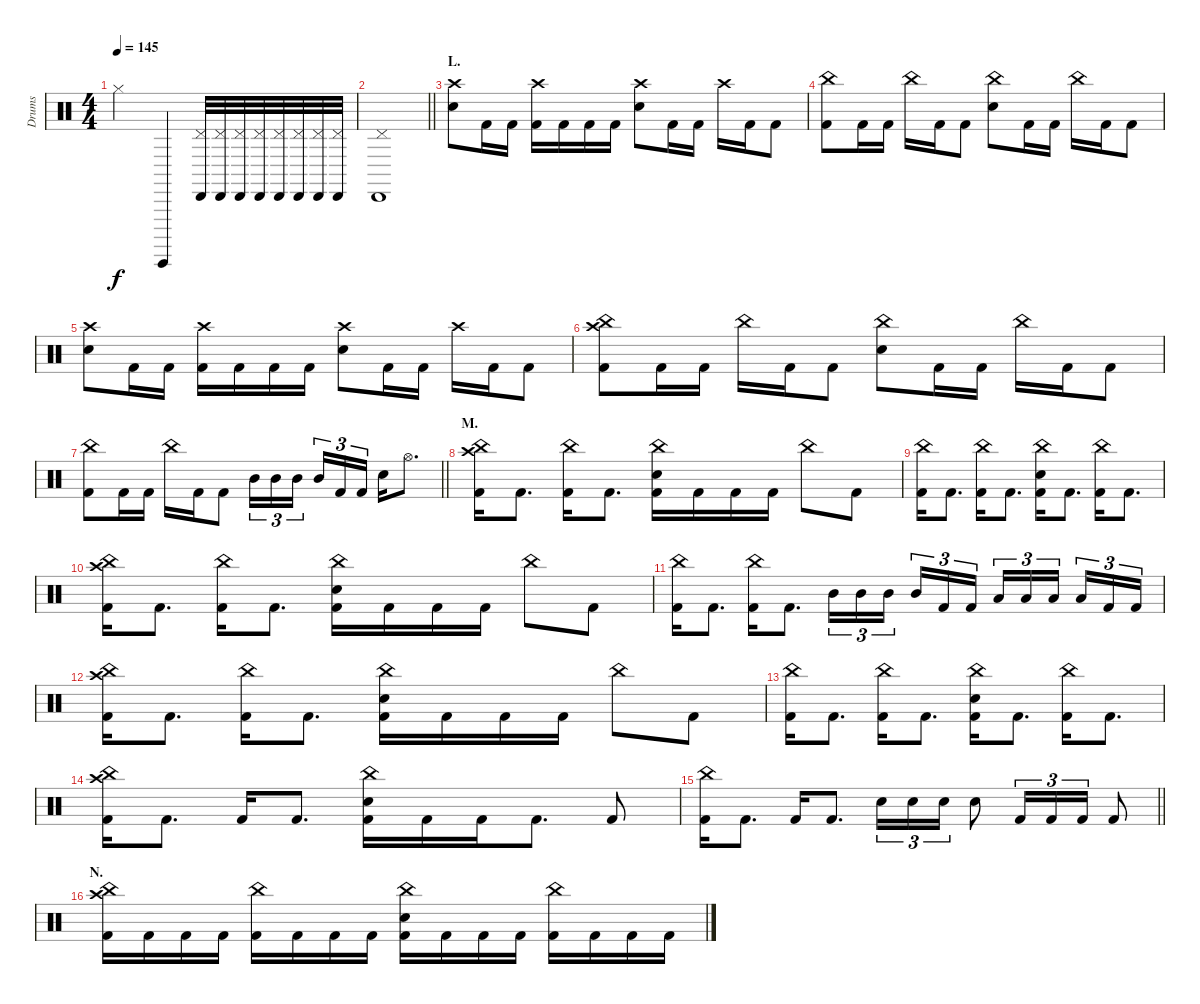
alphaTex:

\track ("Drums" "Drums") {instrument percussion}
\staff {score}
\articulation defaults
\ts (4 4)
\tempo 145
\clef neutral
\ks c "Hi-Hat (closed)".2{dy f} "Guiro (hit)".4
("Cabasa (hit)" "Pedal Hi-Hat (hit)").32 ("Cabasa (hit)" "Pedal Hi-Hat (hit)").32 ("Cabasa (hit)" "Pedal Hi-Hat (hit)").32 ("Cabasa (hit)" "Pedal Hi-Hat (hit)").32 ("Cabasa (hit)" "Pedal Hi-Hat (hit)").32 ("Cabasa (hit)" "Pedal Hi-Hat (hit)").32 ("Cabasa (hit)" "Pedal Hi-Hat (hit)").32 ("Cabasa (hit)" "Pedal Hi-Hat (hit)").32 |
\barLineRight lightlight
("Cabasa (hit)" "Pedal Hi-Hat (hit)").1 |
\section ("" "L.")
("Crash high (hit)" "Electric Snare (hit)").8 "Kick (hit) 2".16 "Kick (hit) 2".16 ("Crash high (hit)" "Kick (hit) 2").16 "Kick (hit) 2".16 "Kick (hit) 2".16 "Kick (hit) 2".16 ("Crash high (hit)" "Electric Snare (hit)").8 "Kick (hit) 2".16 "Kick (hit) 2".16 "Crash high (hit)".16 "Kick (hit) 2".16 "Kick (hit) 2".8 |
("China (hit)" "Kick (hit) 2").8 "Kick (hit) 2".16 "Kick (hit) 2".16 "China (hit)".16 "Kick (hit) 2".16 "Kick (hit) 2".8 ("China (hit)" "Electric Snare (hit)").8 "Kick (hit) 2".16 "Kick (hit) 2".16 "China (hit)".16 "Kick (hit) 2".16 "Kick (hit) 2".8 |
("Crash high (hit)" "Electric Snare (hit)").8 "Kick (hit) 2".16 "Kick (hit) 2".16 ("Crash high (hit)" "Kick (hit) 2").16 "Kick (hit) 2".16 "Kick (hit) 2".16 "Kick (hit) 2".16 ("Crash high (hit)" "Electric Snare (hit)").8 "Kick (hit) 2".16 "Kick (hit) 2".16 "Crash high (hit)".16 "Kick (hit) 2".16 "Kick (hit) 2".8 |
("China (hit)" "Crash high (hit)" "Kick (hit) 2").8 "Kick (hit) 2".16 "Kick (hit) 2".16 "China (hit)".16 "Kick (hit) 2".16 "Kick (hit) 2".8 ("China (hit)" "Electric Snare (hit)").8 "Kick (hit) 2".16 "Kick (hit) 2".16 "China (hit)".16 "Kick (hit) 2".16 "Kick (hit) 2".8 |
\barLineRight lightlight
("China (hit)" "Kick (hit) 2").8 "Kick (hit) 2".16 "Kick (hit) 2".16 "China (hit)".16 "Kick (hit) 2".16 "Kick (hit) 2".8 "Mid Tom (hit)".16{tu (3 2)} "Mid Tom (hit)".16{tu (3 2)} "Mid Tom (hit)".16{tu (3 2) beam splitsecondary} "Mid Tom (hit)".16{tu (3 2)} "Kick (hit) 2".16{tu (3 2)} "Kick (hit) 2".16{tu (3 2)} "Electric Snare (hit)".16 "Hi-Hat (open)".8{d} |
\section ("" "M.")
("China (hit)" "Crash high (hit)" "Kick (hit) 2").16 "Kick (hit) 2".8{d} ("China (hit)" "Kick (hit) 2").16 "Kick (hit) 2".8{d} ("China (hit)" "Electric Snare (hit)" "Kick (hit) 2").16 "Kick (hit) 2".16 "Kick (hit) 2".16 "Kick (hit) 2".16 "China (hit)".8 "Kick (hit) 2".8 |
("China (hit)" "Kick (hit) 2").16 "Kick (hit) 2".8{d} ("China (hit)" "Kick (hit) 2").16 "Kick (hit) 2".8{d} ("China (hit)" "Electric Snare (hit)" "Kick (hit) 2").16 "Kick (hit) 2".8{d} ("China (hit)" "Kick (hit) 2").16 "Kick (hit) 2".8{d} |
("China (hit)" "Crash high (hit)" "Kick (hit) 2").16 "Kick (hit) 2".8{d} ("China (hit)" "Kick (hit) 2").16 "Kick (hit) 2".8{d} ("China (hit)" "Electric Snare (hit)" "Kick (hit) 2").16 "Kick (hit) 2".16 "Kick (hit) 2".16 "Kick (hit) 2".16 "China (hit)".8 "Kick (hit) 2".8 |
("China (hit)" "Kick (hit) 2").16 "Kick (hit) 2".8{d} ("China (hit)" "Kick (hit) 2").16 "Kick (hit) 2".8{d} "Mid Tom (hit)".16{tu (3 2)} "Mid Tom (hit)".16{tu (3 2)} "Mid Tom (hit)".16{tu (3 2) beam splitsecondary} "Mid Tom (hit)".16{tu (3 2)} "Kick (hit) 2".16{tu (3 2)} "Kick (hit) 2".16{tu (3 2)} "Low Tom (hit)".16{tu (3 2)} "Low Tom (hit)".16{tu (3 2)} "Low Tom (hit)".16{tu (3 2) beam splitsecondary} "Low Tom (hit)".16{tu (3 2)} "Kick (hit) 2".16{tu (3 2)} "Kick (hit) 2".16{tu (3 2)} |
("China (hit)" "Crash high (hit)" "Kick (hit) 2").16 "Kick (hit) 2".8{d} ("China (hit)" "Kick (hit) 2").16 "Kick (hit) 2".8{d} ("China (hit)" "Electric Snare (hit)" "Kick (hit) 2").16 "Kick (hit) 2".16 "Kick (hit) 2".16 "Kick (hit) 2".16 "China (hit)".8 "Kick (hit) 2".8 |
("China (hit)" "Kick (hit) 2").16 "Kick (hit) 2".8{d} ("China (hit)" "Kick (hit) 2").16 "Kick (hit) 2".8{d} ("China (hit)" "Electric Snare (hit)" "Kick (hit) 2").16 "Kick (hit) 2".8{d} ("China (hit)" "Kick (hit) 2").16 "Kick (hit) 2".8{d} |
("China (hit)" "Crash high (hit)" "Kick (hit) 2").16 "Kick (hit) 2".8{d} "Kick (hit) 2".16 "Kick (hit) 2".8{d} ("China (hit)" "Electric Snare (hit)" "Kick (hit) 2").16 "Kick (hit) 2".16 "Kick (hit) 2".16 "Kick (hit) 2".8{d} "Kick (hit) 2".8 |
\barLineRight lightlight
("China (hit)" "Kick (hit) 2").16 "Kick (hit) 2".8{d} "Kick (hit) 2".16 "Kick (hit) 2".8{d} "Electric Snare (hit)".16{tu (3 2)} "Electric Snare (hit)".16{tu (3 2)} "Electric Snare (hit)".16{tu (3 2)} "Electric Snare (hit)".8 "Kick (hit) 2".16{tu (3 2)} "Kick (hit) 2".16{tu (3 2)} "Kick (hit) 2".16{tu (3 2)} "Kick (hit) 2".8 |
\section ("" "N.")
("China (hit)" "Crash high (hit)" "Kick (hit) 2").16 "Kick (hit) 2".16 "Kick (hit) 2".16 "Kick (hit) 2".16 ("China (hit)" "Kick (hit) 2").16 "Kick (hit) 2".16 "Kick (hit) 2".16 "Kick (hit) 2".16 ("China (hit)" "Electric Snare (hit)" "Kick (hit) 2").16 "Kick (hit) 2".16 "Kick (hit) 2".16 "Kick (hit) 2".16 ("China (hit)" "Kick (hit) 2").16 "Kick (hit) 2".16 "Kick (hit) 2".16 "Kick (hit) 2".16
